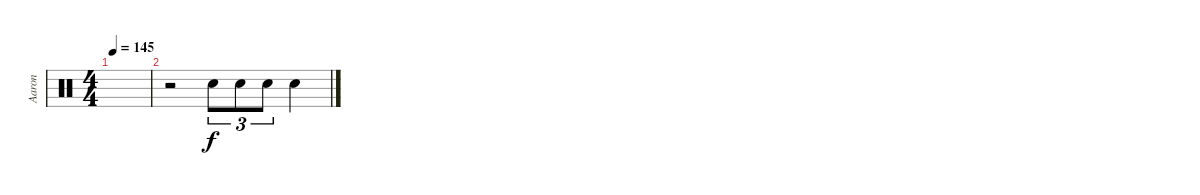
\track ("Aaron" "Aaron") {instrument percussion}
\staff {score}
\articulation defaults
\ts (4 4)
\tempo 145
\clef neutral
\ks c
|
r.2 "Electric Snare (hit)".8{tu (3 2) dy f} "Electric Snare (hit)".8{tu (3 2)} "Electric Snare (hit)".8{tu (3 2)} "Electric Snare (hit)".4
